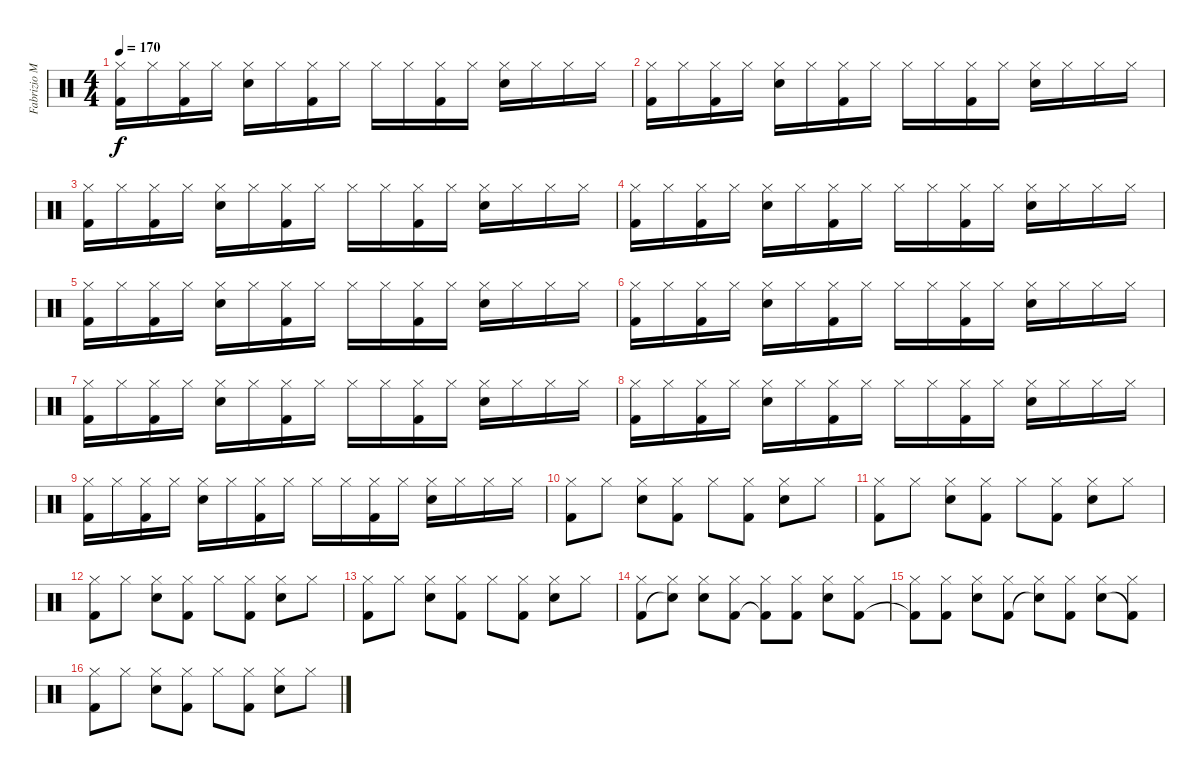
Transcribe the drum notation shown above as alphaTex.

\track ("Fabrizio Moretti" "Fabrizio M") {instrument percussion}
\staff {score}
\articulation defaults
\ts (4 4)
\tempo 170
\clef neutral
\ks c
("Hi-Hat (closed)" "Kick (hit) 2").16{dy f} "Hi-Hat (closed)".16 ("Hi-Hat (closed)" "Kick (hit) 2").16 "Hi-Hat (closed)".16 ("Hi-Hat (closed)" "Electric Snare (hit)").16 "Hi-Hat (closed)".16 ("Hi-Hat (closed)" "Kick (hit) 2").16 "Hi-Hat (closed)".16 "Hi-Hat (closed)".16 "Hi-Hat (closed)".16 ("Hi-Hat (closed)" "Kick (hit) 2").16 "Hi-Hat (closed)".16 ("Hi-Hat (closed)" "Electric Snare (hit)").16 "Hi-Hat (closed)".16 "Hi-Hat (closed)".16 "Hi-Hat (closed)".16 |
("Hi-Hat (closed)" "Kick (hit) 2").16 "Hi-Hat (closed)".16 ("Hi-Hat (closed)" "Kick (hit) 2").16 "Hi-Hat (closed)".16 ("Hi-Hat (closed)" "Electric Snare (hit)").16 "Hi-Hat (closed)".16 ("Hi-Hat (closed)" "Kick (hit) 2").16 "Hi-Hat (closed)".16 "Hi-Hat (closed)".16 "Hi-Hat (closed)".16 ("Hi-Hat (closed)" "Kick (hit) 2").16 "Hi-Hat (closed)".16 ("Hi-Hat (closed)" "Electric Snare (hit)").16 "Hi-Hat (closed)".16 "Hi-Hat (closed)".16 "Hi-Hat (closed)".16 |
("Hi-Hat (closed)" "Kick (hit) 2").16 "Hi-Hat (closed)".16 ("Hi-Hat (closed)" "Kick (hit) 2").16 "Hi-Hat (closed)".16 ("Hi-Hat (closed)" "Electric Snare (hit)").16 "Hi-Hat (closed)".16 ("Hi-Hat (closed)" "Kick (hit) 2").16 "Hi-Hat (closed)".16 "Hi-Hat (closed)".16 "Hi-Hat (closed)".16 ("Hi-Hat (closed)" "Kick (hit) 2").16 "Hi-Hat (closed)".16 ("Hi-Hat (closed)" "Electric Snare (hit)").16 "Hi-Hat (closed)".16 "Hi-Hat (closed)".16 "Hi-Hat (closed)".16 |
("Hi-Hat (closed)" "Kick (hit) 2").16 "Hi-Hat (closed)".16 ("Hi-Hat (closed)" "Kick (hit) 2").16 "Hi-Hat (closed)".16 ("Hi-Hat (closed)" "Electric Snare (hit)").16 "Hi-Hat (closed)".16 ("Hi-Hat (closed)" "Kick (hit) 2").16 "Hi-Hat (closed)".16 "Hi-Hat (closed)".16 "Hi-Hat (closed)".16 ("Hi-Hat (closed)" "Kick (hit) 2").16 "Hi-Hat (closed)".16 ("Hi-Hat (closed)" "Electric Snare (hit)").16 "Hi-Hat (closed)".16 "Hi-Hat (closed)".16 "Hi-Hat (closed)".16 |
("Hi-Hat (closed)" "Kick (hit) 2").16 "Hi-Hat (closed)".16 ("Hi-Hat (closed)" "Kick (hit) 2").16 "Hi-Hat (closed)".16 ("Hi-Hat (closed)" "Electric Snare (hit)").16 "Hi-Hat (closed)".16 ("Hi-Hat (closed)" "Kick (hit) 2").16 "Hi-Hat (closed)".16 "Hi-Hat (closed)".16 "Hi-Hat (closed)".16 ("Hi-Hat (closed)" "Kick (hit) 2").16 "Hi-Hat (closed)".16 ("Hi-Hat (closed)" "Electric Snare (hit)").16 "Hi-Hat (closed)".16 "Hi-Hat (closed)".16 "Hi-Hat (closed)".16 |
("Hi-Hat (closed)" "Kick (hit) 2").16 "Hi-Hat (closed)".16 ("Hi-Hat (closed)" "Kick (hit) 2").16 "Hi-Hat (closed)".16 ("Hi-Hat (closed)" "Electric Snare (hit)").16 "Hi-Hat (closed)".16 ("Hi-Hat (closed)" "Kick (hit) 2").16 "Hi-Hat (closed)".16 "Hi-Hat (closed)".16 "Hi-Hat (closed)".16 ("Hi-Hat (closed)" "Kick (hit) 2").16 "Hi-Hat (closed)".16 ("Hi-Hat (closed)" "Electric Snare (hit)").16 "Hi-Hat (closed)".16 "Hi-Hat (closed)".16 "Hi-Hat (closed)".16 |
("Hi-Hat (closed)" "Kick (hit) 2").16 "Hi-Hat (closed)".16 ("Hi-Hat (closed)" "Kick (hit) 2").16 "Hi-Hat (closed)".16 ("Hi-Hat (closed)" "Electric Snare (hit)").16 "Hi-Hat (closed)".16 ("Hi-Hat (closed)" "Kick (hit) 2").16 "Hi-Hat (closed)".16 "Hi-Hat (closed)".16 "Hi-Hat (closed)".16 ("Hi-Hat (closed)" "Kick (hit) 2").16 "Hi-Hat (closed)".16 ("Hi-Hat (closed)" "Electric Snare (hit)").16 "Hi-Hat (closed)".16 "Hi-Hat (closed)".16 "Hi-Hat (closed)".16 |
("Hi-Hat (closed)" "Kick (hit) 2").16 "Hi-Hat (closed)".16 ("Hi-Hat (closed)" "Kick (hit) 2").16 "Hi-Hat (closed)".16 ("Hi-Hat (closed)" "Electric Snare (hit)").16 "Hi-Hat (closed)".16 ("Hi-Hat (closed)" "Kick (hit) 2").16 "Hi-Hat (closed)".16 "Hi-Hat (closed)".16 "Hi-Hat (closed)".16 ("Hi-Hat (closed)" "Kick (hit) 2").16 "Hi-Hat (closed)".16 ("Hi-Hat (closed)" "Electric Snare (hit)").16 "Hi-Hat (closed)".16 "Hi-Hat (closed)".16 "Hi-Hat (closed)".16 |
("Hi-Hat (closed)" "Kick (hit) 2").16 "Hi-Hat (closed)".16 ("Hi-Hat (closed)" "Kick (hit) 2").16 "Hi-Hat (closed)".16 ("Hi-Hat (closed)" "Electric Snare (hit)").16 "Hi-Hat (closed)".16 ("Hi-Hat (closed)" "Kick (hit) 2").16 "Hi-Hat (closed)".16 "Hi-Hat (closed)".16 "Hi-Hat (closed)".16 ("Hi-Hat (closed)" "Kick (hit) 2").16 "Hi-Hat (closed)".16 ("Hi-Hat (closed)" "Electric Snare (hit)").16 "Hi-Hat (closed)".16 "Hi-Hat (closed)".16 "Hi-Hat (closed)".16 |
("Hi-Hat (closed)" "Kick (hit) 2").8 "Hi-Hat (closed)".8 ("Hi-Hat (closed)" "Electric Snare (hit)").8 ("Hi-Hat (closed)" "Kick (hit) 2").8 "Hi-Hat (closed)".8 ("Hi-Hat (closed)" "Kick (hit) 2").8 ("Hi-Hat (closed)" "Electric Snare (hit)").8 "Hi-Hat (closed)".8 |
("Hi-Hat (closed)" "Kick (hit) 2").8 "Hi-Hat (closed)".8 ("Hi-Hat (closed)" "Electric Snare (hit)").8 ("Hi-Hat (closed)" "Kick (hit) 2").8 "Hi-Hat (closed)".8 ("Hi-Hat (closed)" "Kick (hit) 2").8 ("Hi-Hat (closed)" "Electric Snare (hit)").8 "Hi-Hat (closed)".8 |
("Hi-Hat (closed)" "Kick (hit) 2").8 "Hi-Hat (closed)".8 ("Hi-Hat (closed)" "Electric Snare (hit)").8 ("Hi-Hat (closed)" "Kick (hit) 2").8 "Hi-Hat (closed)".8 ("Hi-Hat (closed)" "Kick (hit) 2").8 ("Hi-Hat (closed)" "Electric Snare (hit)").8 "Hi-Hat (closed)".8 |
("Hi-Hat (closed)" "Kick (hit) 2").8 "Hi-Hat (closed)".8 ("Hi-Hat (closed)" "Electric Snare (hit)").8 ("Hi-Hat (closed)" "Kick (hit) 2").8 "Hi-Hat (closed)".8 ("Hi-Hat (closed)" "Kick (hit) 2").8 ("Hi-Hat (closed)" "Electric Snare (hit)").8 "Hi-Hat (closed)".8 |
("Hi-Hat (closed)" "Kick (hit) 2").8 ("Hi-Hat (closed)" "Snare (hit)"{t}).8 ("Hi-Hat (closed)" "Electric Snare (hit)").8 ("Hi-Hat (closed)" "Kick (hit) 2").8 ("Hi-Hat (closed)" "Kick (hit) 2"{t}).8 ("Hi-Hat (closed)" "Kick (hit) 2").8 ("Hi-Hat (closed)" "Electric Snare (hit)").8 ("Hi-Hat (closed)" "Kick (hit) 2").8 |
("Hi-Hat (closed)" "Kick (hit) 2"{t}).8 ("Hi-Hat (closed)" "Kick (hit) 2").8 ("Hi-Hat (closed)" "Electric Snare (hit)").8 ("Hi-Hat (closed)" "Kick (hit) 2").8 ("Hi-Hat (closed)" "Snare (hit)"{t}).8 ("Hi-Hat (closed)" "Kick (hit) 2").8 ("Hi-Hat (closed)" "Electric Snare (hit)").8 ("Hi-Hat (closed)" "Kick (hit) 2"{t}).8 |
("Hi-Hat (closed)" "Kick (hit) 2").8 "Hi-Hat (closed)".8 ("Hi-Hat (closed)" "Electric Snare (hit)").8 ("Hi-Hat (closed)" "Kick (hit) 2").8 "Hi-Hat (closed)".8 ("Hi-Hat (closed)" "Kick (hit) 2").8 ("Hi-Hat (closed)" "Electric Snare (hit)").8 "Hi-Hat (closed)".8
